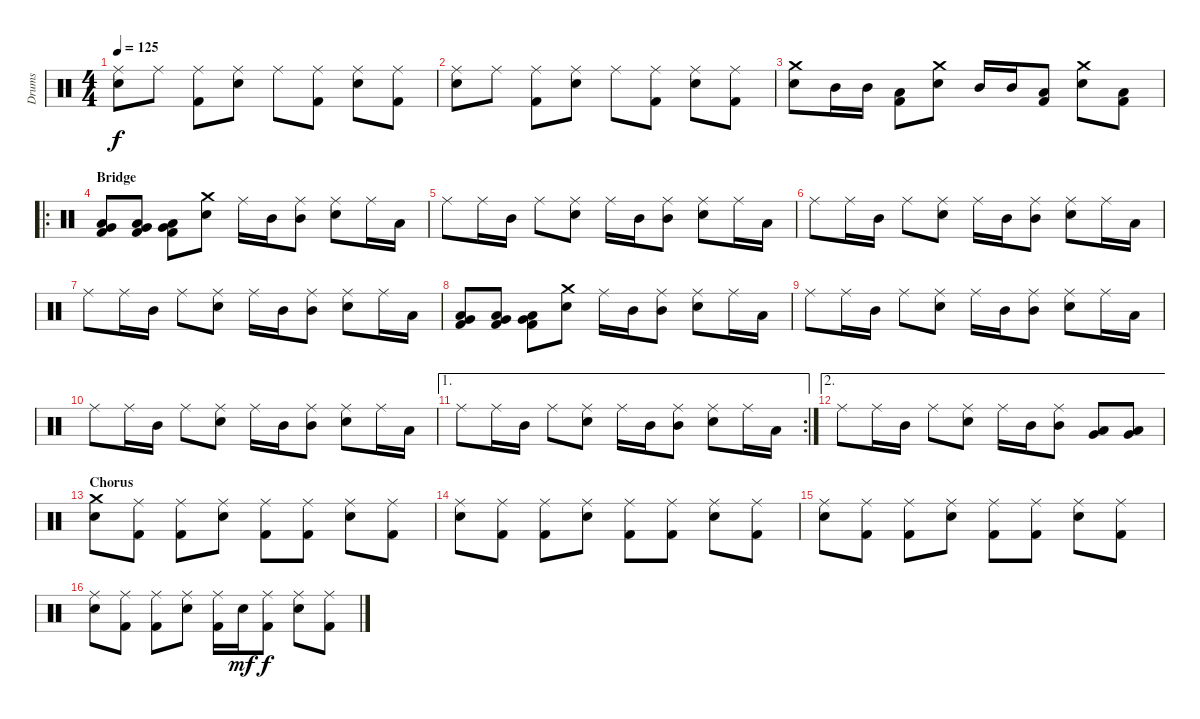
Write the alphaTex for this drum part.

\track ("Drums" "Drums") {instrument percussion}
\staff {score}
\articulation defaults
\ts (4 4)
\tempo 125
\clef neutral
\ks c
("Ride (middle)" "Snare (hit) 2").8{dy f} "Ride (middle)".8 ("Ride (middle)" "Kick (hit) 2").8 ("Ride (middle)" "Snare (hit) 2").8 "Ride (middle)".8 ("Ride (middle)" "Kick (hit) 2").8 ("Ride (middle)" "Snare (hit) 2").8 ("Ride (middle)" "Kick (hit) 2").8 |
("Ride (middle)" "Snare (hit) 2").8 "Ride (middle)".8 ("Ride (middle)" "Kick (hit) 2").8 ("Ride (middle)" "Snare (hit) 2").8 "Ride (middle)".8 ("Ride (middle)" "Kick (hit) 2").8 ("Ride (middle)" "Snare (hit) 2").8 ("Ride (middle)" "Kick (hit) 2").8 |
("Crash medium (hit)" "Snare (hit) 2").8 "Mid Tom (hit)".16 "Mid Tom (hit)".16 ("Low Tom (hit)" "Kick (hit) 2").8 ("Crash medium (hit)" "Snare (hit) 2").8 "Mid Tom (hit)".16 "Mid Tom (hit)".16 ("Low Tom (hit)" "Kick (hit) 2").8 ("Crash medium (hit)" "Snare (hit) 2").8 ("Low Tom (hit)" "Kick (hit) 2").8 |
\ro
\section ("" "Bridge")
("Low Tom (hit)" "Very Low Tom (hit)" "Kick (hit) 2").8 ("Low Tom (hit)" "Very Low Tom (hit)" "Kick (hit) 2").8 ("Low Tom (hit)" "Very Low Tom (hit)" "Kick (hit) 2").8 ("Crash medium (hit)" "Snare (hit) 2").8 "Ride (middle)".16 "Mid Tom (hit)".16 ("Ride (middle)" "Mid Tom (hit)").8 ("Ride (middle)" "Snare (hit) 2").8 "Ride (middle)".16 "Low Tom (hit)".16 |
"Ride (middle)".8 "Ride (middle)".16 "Mid Tom (hit)".16 "Ride (middle)".8 ("Ride (middle)" "Snare (hit) 2").8 "Ride (middle)".16 "Mid Tom (hit)".16 ("Ride (middle)" "Mid Tom (hit)").8 ("Ride (middle)" "Snare (hit) 2").8 "Ride (middle)".16 "Low Tom (hit)".16 |
"Ride (middle)".8 "Ride (middle)".16 "Mid Tom (hit)".16 "Ride (middle)".8 ("Ride (middle)" "Snare (hit) 2").8 "Ride (middle)".16 "Mid Tom (hit)".16 ("Ride (middle)" "Mid Tom (hit)").8 ("Ride (middle)" "Snare (hit) 2").8 "Ride (middle)".16 "Low Tom (hit)".16 |
"Ride (middle)".8 "Ride (middle)".16 "Mid Tom (hit)".16 "Ride (middle)".8 ("Ride (middle)" "Snare (hit) 2").8 "Ride (middle)".16 "Mid Tom (hit)".16 ("Ride (middle)" "Mid Tom (hit)").8 ("Ride (middle)" "Snare (hit) 2").8 "Ride (middle)".16 "Low Tom (hit)".16 |
("Low Tom (hit)" "Very Low Tom (hit)" "Kick (hit) 2").8 ("Low Tom (hit)" "Very Low Tom (hit)" "Kick (hit) 2").8 ("Low Tom (hit)" "Very Low Tom (hit)" "Kick (hit) 2").8 ("Crash medium (hit)" "Snare (hit) 2").8 "Ride (middle)".16 "Mid Tom (hit)".16 ("Ride (middle)" "Mid Tom (hit)").8 ("Ride (middle)" "Snare (hit) 2").8 "Ride (middle)".16 "Low Tom (hit)".16 |
"Ride (middle)".8 "Ride (middle)".16 "Mid Tom (hit)".16 "Ride (middle)".8 ("Ride (middle)" "Snare (hit) 2").8 "Ride (middle)".16 "Mid Tom (hit)".16 ("Ride (middle)" "Mid Tom (hit)").8 ("Ride (middle)" "Snare (hit) 2").8 "Ride (middle)".16 "Low Tom (hit)".16 |
"Ride (middle)".8 "Ride (middle)".16 "Mid Tom (hit)".16 "Ride (middle)".8 ("Ride (middle)" "Snare (hit) 2").8 "Ride (middle)".16 "Mid Tom (hit)".16 ("Ride (middle)" "Mid Tom (hit)").8 ("Ride (middle)" "Snare (hit) 2").8 "Ride (middle)".16 "Low Tom (hit)".16 |
\ae 1
\rc 2 "Ride (middle)".8 "Ride (middle)".16 "Mid Tom (hit)".16 "Ride (middle)".8
("Ride (middle)" "Snare (hit) 2").8 "Ride (middle)".16 "Mid Tom (hit)".16 ("Ride (middle)" "Mid Tom (hit)").8 ("Ride (middle)" "Snare (hit) 2").8 "Ride (middle)".16 "Low Tom (hit)".16 |
\ae 2 "Ride (middle)".8 "Ride (middle)".16 "Mid Tom (hit)".16 "Ride (middle)".8
("Ride (middle)" "Snare (hit) 2").8 "Ride (middle)".16 "Mid Tom (hit)".16 ("Ride (middle)" "Mid Tom (hit)").8 ("Low Tom (hit)" "Very Low Tom (hit)").8 ("Low Tom (hit)" "Very Low Tom (hit)").8 |
\section ("" "Chorus")
("Crash medium (hit)" "Snare (hit) 2").8 ("Ride (middle)" "Kick (hit) 2").8 ("Ride (middle)" "Kick (hit) 2").8 ("Ride (middle)" "Snare (hit) 2").8 ("Ride (middle)" "Kick (hit) 2").8 ("Ride (middle)" "Kick (hit) 2").8 ("Ride (middle)" "Snare (hit) 2").8 ("Ride (middle)" "Kick (hit) 2").8 |
("Ride (middle)" "Snare (hit) 2").8 ("Ride (middle)" "Kick (hit) 2").8 ("Ride (middle)" "Kick (hit) 2").8 ("Ride (middle)" "Snare (hit) 2").8 ("Ride (middle)" "Kick (hit) 2").8 ("Ride (middle)" "Kick (hit) 2").8 ("Ride (middle)" "Snare (hit) 2").8 ("Ride (middle)" "Kick (hit) 2").8 |
("Ride (middle)" "Snare (hit) 2").8 ("Ride (middle)" "Kick (hit) 2").8 ("Ride (middle)" "Kick (hit) 2").8 ("Ride (middle)" "Snare (hit) 2").8 ("Ride (middle)" "Kick (hit) 2").8 ("Ride (middle)" "Kick (hit) 2").8 ("Ride (middle)" "Snare (hit) 2").8 ("Ride (middle)" "Kick (hit) 2").8 |
("Ride (middle)" "Snare (hit) 2").8 ("Ride (middle)" "Kick (hit) 2").8 ("Ride (middle)" "Kick (hit) 2").8 ("Ride (middle)" "Snare (hit) 2").8 ("Ride (middle)" "Kick (hit) 2").16 "Snare (hit) 2".16{dy mf} ("Ride (middle)" "Kick (hit) 2").8{dy f} ("Ride (middle)" "Snare (hit) 2").8 ("Ride (middle)" "Kick (hit) 2").8
